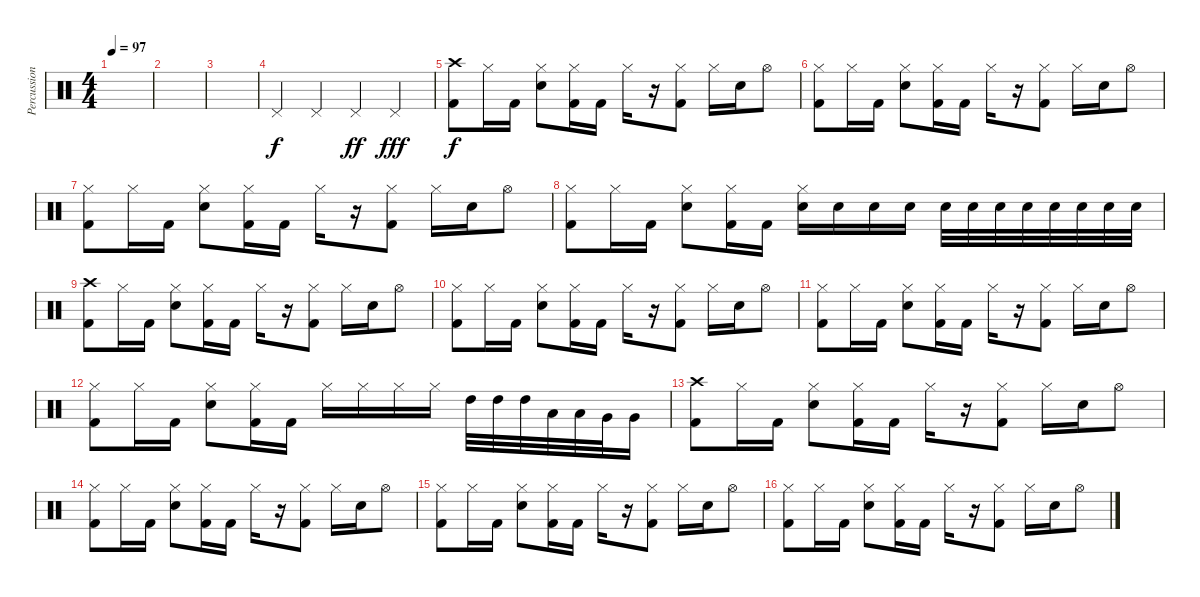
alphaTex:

\track ("Percussion" "Percussion") {instrument percussion}
\staff {score}
\articulation defaults
\ts (4 4)
\tempo 97
\clef neutral
\ks c
|
|
|
"Pedal Hi-Hat (hit)".4 "Pedal Hi-Hat (hit)".4 "Pedal Hi-Hat (hit)".4{dy ff} "Pedal Hi-Hat (hit)".4{dy fff} |
("Crash high (hit)" "Kick (hit) 2").8{dy f} "Hi-Hat (closed)".16 "Kick (hit) 2".16 ("Hi-Hat (closed)" "Snare (hit) 2").8 ("Hi-Hat (closed)" "Kick (hit) 2").16 "Kick (hit) 2".16 "Hi-Hat (closed)".16 r.16 ("Hi-Hat (closed)" "Kick (hit) 2").8 "Hi-Hat (closed)".16 "Snare (hit) 2".16 "Hi-Hat (open)".8 |
("Hi-Hat (closed)" "Kick (hit) 2").8 "Hi-Hat (closed)".16 "Kick (hit) 2".16 ("Hi-Hat (closed)" "Snare (hit) 2").8 ("Hi-Hat (closed)" "Kick (hit) 2").16 "Kick (hit) 2".16 "Hi-Hat (closed)".16 r.16 ("Hi-Hat (closed)" "Kick (hit) 2").8 "Hi-Hat (closed)".16 "Snare (hit) 2".16 "Hi-Hat (open)".8 |
("Hi-Hat (closed)" "Kick (hit) 2").8 "Hi-Hat (closed)".16 "Kick (hit) 2".16 ("Hi-Hat (closed)" "Snare (hit) 2").8 ("Hi-Hat (closed)" "Kick (hit) 2").16 "Kick (hit) 2".16 "Hi-Hat (closed)".16 r.16 ("Hi-Hat (closed)" "Kick (hit) 2").8 "Hi-Hat (closed)".16 "Snare (hit) 2".16 "Hi-Hat (open)".8 |
("Hi-Hat (closed)" "Kick (hit) 2").8 "Hi-Hat (closed)".16 "Kick (hit) 2".16 ("Hi-Hat (closed)" "Snare (hit) 2").8 ("Hi-Hat (closed)" "Kick (hit) 2").16 "Kick (hit) 2".16 ("Hi-Hat (closed)" "Snare (hit) 2").16 "Snare (hit) 2".16 "Snare (hit) 2".16 "Snare (hit) 2".16 "Snare (hit) 2".32 "Snare (hit) 2".32 "Snare (hit) 2".32 "Snare (hit) 2".32 "Snare (hit) 2".32 "Snare (hit) 2".32 "Snare (hit) 2".32 "Snare (hit) 2".32 |
("Crash high (hit)" "Kick (hit) 2").8 "Hi-Hat (closed)".16 "Kick (hit) 2".16 ("Hi-Hat (closed)" "Snare (hit) 2").8 ("Hi-Hat (closed)" "Kick (hit) 2").16 "Kick (hit) 2".16 "Hi-Hat (closed)".16 r.16 ("Hi-Hat (closed)" "Kick (hit) 2").8 "Hi-Hat (closed)".16 "Snare (hit) 2".16 "Hi-Hat (open)".8 |
("Hi-Hat (closed)" "Kick (hit) 2").8 "Hi-Hat (closed)".16 "Kick (hit) 2".16 ("Hi-Hat (closed)" "Snare (hit) 2").8 ("Hi-Hat (closed)" "Kick (hit) 2").16 "Kick (hit) 2".16 "Hi-Hat (closed)".16 r.16 ("Hi-Hat (closed)" "Kick (hit) 2").8 "Hi-Hat (closed)".16 "Snare (hit) 2".16 "Hi-Hat (open)".8 |
("Hi-Hat (closed)" "Kick (hit) 2").8 "Hi-Hat (closed)".16 "Kick (hit) 2".16 ("Hi-Hat (closed)" "Snare (hit) 2").8 ("Hi-Hat (closed)" "Kick (hit) 2").16 "Kick (hit) 2".16 "Hi-Hat (closed)".16 r.16 ("Hi-Hat (closed)" "Kick (hit) 2").8 "Hi-Hat (closed)".16 "Snare (hit) 2".16 "Hi-Hat (open)".8 |
("Hi-Hat (closed)" "Kick (hit) 2").8 "Hi-Hat (closed)".16 "Kick (hit) 2".16 ("Hi-Hat (closed)" "Snare (hit) 2").8 ("Hi-Hat (closed)" "Kick (hit) 2").16 "Kick (hit) 2".16 "Hi-Hat (closed)".16 "Hi-Hat (closed)".16 "Hi-Hat (closed)".16 "Hi-Hat (closed)".16 "High Tom (hit)".32 "High Tom (hit)".32 "High Tom (hit)".32 "Low Tom (hit)".32 "Low Tom (hit)".32 "Very Low Tom (hit)".32 "Very Low Tom (hit)".16 |
("Crash high (hit)" "Kick (hit) 2").8 "Hi-Hat (closed)".16 "Kick (hit) 2".16 ("Hi-Hat (closed)" "Snare (hit) 2").8 ("Hi-Hat (closed)" "Kick (hit) 2").16 "Kick (hit) 2".16 "Hi-Hat (closed)".16 r.16 ("Hi-Hat (closed)" "Kick (hit) 2").8 "Hi-Hat (closed)".16 "Snare (hit) 2".16 "Hi-Hat (open)".8 |
("Hi-Hat (closed)" "Kick (hit) 2").8 "Hi-Hat (closed)".16 "Kick (hit) 2".16 ("Hi-Hat (closed)" "Snare (hit) 2").8 ("Hi-Hat (closed)" "Kick (hit) 2").16 "Kick (hit) 2".16 "Hi-Hat (closed)".16 r.16 ("Hi-Hat (closed)" "Kick (hit) 2").8 "Hi-Hat (closed)".16 "Snare (hit) 2".16 "Hi-Hat (open)".8 |
("Hi-Hat (closed)" "Kick (hit) 2").8 "Hi-Hat (closed)".16 "Kick (hit) 2".16 ("Hi-Hat (closed)" "Snare (hit) 2").8 ("Hi-Hat (closed)" "Kick (hit) 2").16 "Kick (hit) 2".16 "Hi-Hat (closed)".16 r.16 ("Hi-Hat (closed)" "Kick (hit) 2").8 "Hi-Hat (closed)".16 "Snare (hit) 2".16 "Hi-Hat (open)".8 |
("Hi-Hat (closed)" "Kick (hit) 2").8 "Hi-Hat (closed)".16 "Kick (hit) 2".16 ("Hi-Hat (closed)" "Snare (hit) 2").8 ("Hi-Hat (closed)" "Kick (hit) 2").16 "Kick (hit) 2".16 "Hi-Hat (closed)".16 r.16 ("Hi-Hat (closed)" "Kick (hit) 2").8 "Hi-Hat (closed)".16 "Snare (hit) 2".16 "Hi-Hat (open)".8
